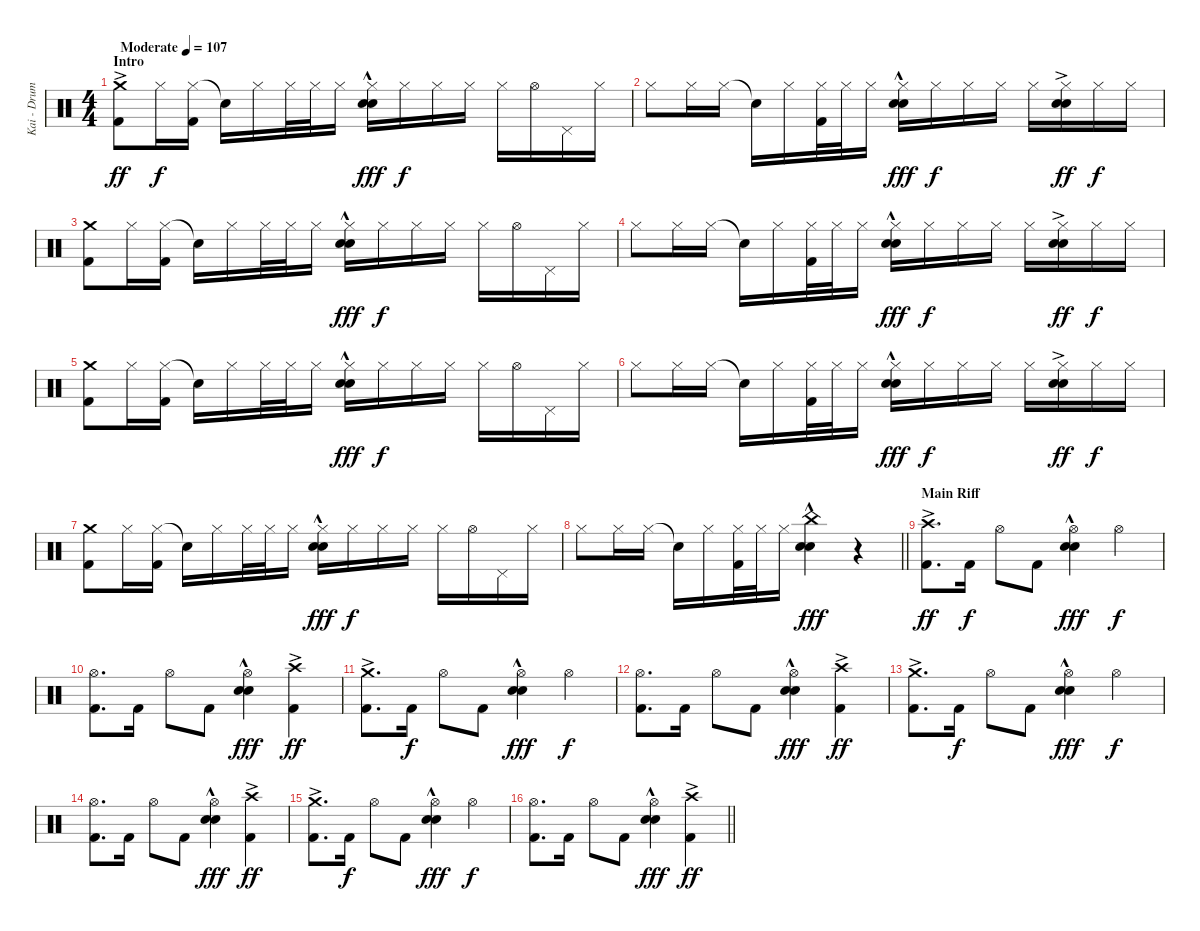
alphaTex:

\track ("Kai - Drums" "Kai - Drum") {instrument percussion}
\staff {score}
\articulation defaults
\ts (4 4)
\section ("" "Intro")
\tempo (107 "Moderate")
\clef neutral
\ks c
("Crash medium (hit)"{ac} "Kick (hit) 2").8{dy ff} "Hi-Hat (closed)".16{dy f} ("Hi-Hat (closed)" "Kick (hit) 2").16 "Snare (hit)"{t}.16 "Hi-Hat (closed)".16 "Hi-Hat (closed)".32 "Hi-Hat (closed)".32 "Hi-Hat (closed)".16 ("Hi-Hat (closed)" "Electric Snare (hit)"{hac} "Snare (hit) 2"{hac}).16{dy fff} "Hi-Hat (closed)".16{dy f} "Hi-Hat (closed)".16 "Hi-Hat (closed)".16 "Hi-Hat (closed)".16 "Hi-Hat (open)".16 "Pedal Hi-Hat (hit)".16 "Hi-Hat (closed)".16 |
"Hi-Hat (closed)".8 "Hi-Hat (closed)".16 "Hi-Hat (closed)".16 "Snare (hit)"{t}.16 "Hi-Hat (closed)".16 ("Hi-Hat (closed)" "Kick (hit) 2").32 "Hi-Hat (closed)".32 "Hi-Hat (closed)".16 ("Hi-Hat (closed)" "Electric Snare (hit)"{hac} "Snare (hit) 2"{hac}).16{dy fff} "Hi-Hat (closed)".16{dy f} "Hi-Hat (closed)".16 "Hi-Hat (closed)".16 "Hi-Hat (closed)".16 ("Hi-Hat (closed)" "Electric Snare (hit)"{ac} "Snare (hit) 2"{ac}).16{dy ff} "Hi-Hat (closed)".16{dy f} "Hi-Hat (closed)".16 |
("Crash medium (hit)" "Kick (hit) 2").8 "Hi-Hat (closed)".16 ("Hi-Hat (closed)" "Kick (hit) 2").16 "Snare (hit)"{t}.16 "Hi-Hat (closed)".16 "Hi-Hat (closed)".32 "Hi-Hat (closed)".32 "Hi-Hat (closed)".16 ("Hi-Hat (closed)" "Electric Snare (hit)"{hac} "Snare (hit) 2"{hac}).16{dy fff} "Hi-Hat (closed)".16{dy f} "Hi-Hat (closed)".16 "Hi-Hat (closed)".16 "Hi-Hat (closed)".16 "Hi-Hat (open)".16 "Pedal Hi-Hat (hit)".16 "Hi-Hat (closed)".16 |
"Hi-Hat (closed)".8 "Hi-Hat (closed)".16 "Hi-Hat (closed)".16 "Snare (hit)"{t}.16 "Hi-Hat (closed)".16 ("Hi-Hat (closed)" "Kick (hit) 2").32 "Hi-Hat (closed)".32 "Hi-Hat (closed)".16 ("Hi-Hat (closed)" "Electric Snare (hit)"{hac} "Snare (hit) 2"{hac}).16{dy fff} "Hi-Hat (closed)".16{dy f} "Hi-Hat (closed)".16 "Hi-Hat (closed)".16 "Hi-Hat (closed)".16 ("Hi-Hat (closed)" "Electric Snare (hit)"{ac} "Snare (hit) 2"{ac}).16{dy ff} "Hi-Hat (closed)".16{dy f} "Hi-Hat (closed)".16 |
("Crash medium (hit)" "Kick (hit) 2").8 "Hi-Hat (closed)".16 ("Hi-Hat (closed)" "Kick (hit) 2").16 "Snare (hit)"{t}.16 "Hi-Hat (closed)".16 "Hi-Hat (closed)".32 "Hi-Hat (closed)".32 "Hi-Hat (closed)".16 ("Hi-Hat (closed)" "Electric Snare (hit)"{hac} "Snare (hit) 2"{hac}).16{dy fff} "Hi-Hat (closed)".16{dy f} "Hi-Hat (closed)".16 "Hi-Hat (closed)".16 "Hi-Hat (closed)".16 "Hi-Hat (open)".16 "Pedal Hi-Hat (hit)".16 "Hi-Hat (closed)".16 |
"Hi-Hat (closed)".8 "Hi-Hat (closed)".16 "Hi-Hat (closed)".16 "Snare (hit)"{t}.16 "Hi-Hat (closed)".16 ("Hi-Hat (closed)" "Kick (hit) 2").32 "Hi-Hat (closed)".32 "Hi-Hat (closed)".16 ("Hi-Hat (closed)" "Electric Snare (hit)"{hac} "Snare (hit) 2"{hac}).16{dy fff} "Hi-Hat (closed)".16{dy f} "Hi-Hat (closed)".16 "Hi-Hat (closed)".16 "Hi-Hat (closed)".16 ("Hi-Hat (closed)" "Electric Snare (hit)"{ac} "Snare (hit) 2"{ac}).16{dy ff} "Hi-Hat (closed)".16{dy f} "Hi-Hat (closed)".16 |
("Crash medium (hit)" "Kick (hit) 2").8 "Hi-Hat (closed)".16 ("Hi-Hat (closed)" "Kick (hit) 2").16 "Snare (hit)"{t}.16 "Hi-Hat (closed)".16 "Hi-Hat (closed)".32 "Hi-Hat (closed)".32 "Hi-Hat (closed)".16 ("Hi-Hat (closed)" "Electric Snare (hit)"{hac} "Snare (hit) 2"{hac}).16{dy fff} "Hi-Hat (closed)".16{dy f} "Hi-Hat (closed)".16 "Hi-Hat (closed)".16 "Hi-Hat (closed)".16 "Hi-Hat (open)".16 "Pedal Hi-Hat (hit)".16 "Hi-Hat (closed)".16 |
\barLineRight lightlight "Hi-Hat (closed)".8 "Hi-Hat (closed)".16 "Hi-Hat (closed)".16 "Snare (hit)"{t}.16 "Hi-Hat (closed)".16
("Hi-Hat (closed)" "Kick (hit) 2").32 "Hi-Hat (closed)".32 "Hi-Hat (closed)".16 ("China (hit)" "Electric Snare (hit)"{hac} "Snare (hit) 2"{hac}).4{dy fff} r.4 |
\section ("" "Main Riff")
("Crash high (hit)"{ac} "Kick (hit) 2").8{d dy ff} "Kick (hit) 2".16{dy f} "Hi-Hat (open)".8 "Kick (hit) 2".8 ("Hi-Hat (open)" "Electric Snare (hit)"{hac} "Snare (hit) 2"{hac}).4{dy fff} "Hi-Hat (open)".4{dy f} |
("Hi-Hat (open)" "Kick (hit) 2").8{d} "Kick (hit) 2".16 "Hi-Hat (open)".8 "Kick (hit) 2".8 ("Hi-Hat (open)" "Electric Snare (hit)"{hac} "Snare (hit) 2"{hac}).4{dy fff} ("Crash high (hit)"{ac} "Kick (hit) 2").4{dy ff} |
("Crash medium (hit)"{ac} "Kick (hit) 2").8{d} "Kick (hit) 2".16{dy f} "Hi-Hat (open)".8 "Kick (hit) 2".8 ("Hi-Hat (open)" "Electric Snare (hit)"{hac} "Snare (hit) 2"{hac}).4{dy fff} "Hi-Hat (open)".4{dy f} |
("Hi-Hat (open)" "Kick (hit) 2").8{d} "Kick (hit) 2".16 "Hi-Hat (open)".8 "Kick (hit) 2".8 ("Hi-Hat (open)" "Electric Snare (hit)"{hac} "Snare (hit) 2"{hac}).4{dy fff} ("Crash high (hit)"{ac} "Kick (hit) 2").4{dy ff} |
("Crash medium (hit)"{ac} "Kick (hit) 2").8{d} "Kick (hit) 2".16{dy f} "Hi-Hat (open)".8 "Kick (hit) 2".8 ("Hi-Hat (open)" "Electric Snare (hit)"{hac} "Snare (hit) 2"{hac}).4{dy fff} "Hi-Hat (open)".4{dy f} |
("Hi-Hat (open)" "Kick (hit) 2").8{d} "Kick (hit) 2".16 "Hi-Hat (open)".8 "Kick (hit) 2".8 ("Hi-Hat (open)" "Electric Snare (hit)"{hac} "Snare (hit) 2"{hac}).4{dy fff} ("Crash high (hit)"{ac} "Kick (hit) 2").4{dy ff} |
("Crash medium (hit)"{ac} "Kick (hit) 2").8{d} "Kick (hit) 2".16{dy f} "Hi-Hat (open)".8 "Kick (hit) 2".8 ("Hi-Hat (open)" "Electric Snare (hit)"{hac} "Snare (hit) 2"{hac}).4{dy fff} "Hi-Hat (open)".4{dy f} |
\barLineRight lightlight
("Hi-Hat (open)" "Kick (hit) 2").8{d} "Kick (hit) 2".16 "Hi-Hat (open)".8 "Kick (hit) 2".8 ("Hi-Hat (open)" "Electric Snare (hit)"{hac} "Snare (hit) 2"{hac}).4{dy fff} ("Crash high (hit)"{ac} "Kick (hit) 2").4{dy ff}
